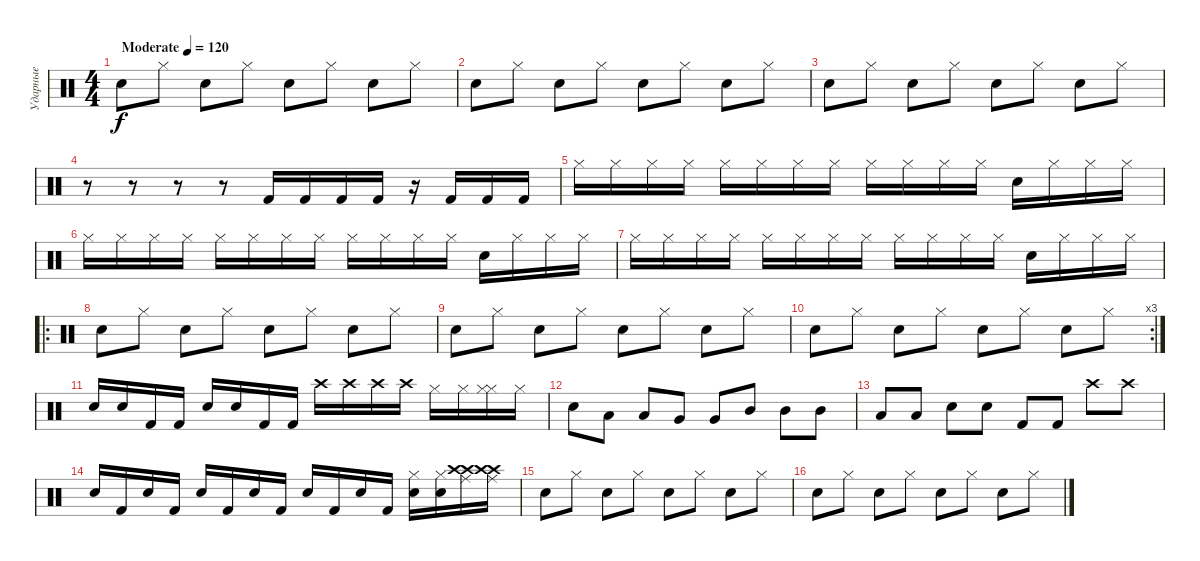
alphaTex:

\track ("Ударные" "Ударные") {instrument percussion}
\staff {score}
\articulation defaults
\ts (4 4)
\tempo (120 "Moderate")
\clef neutral
\ks c "Snare (hit) 2".8{dy f} "Hi-Hat (closed)".8 "Snare (hit) 2".8 "Hi-Hat (closed)".8 "Snare (hit) 2".8 "Hi-Hat (closed)".8 "Snare (hit) 2".8 "Hi-Hat (closed)".8
|
"Snare (hit) 2".8 "Hi-Hat (closed)".8 "Snare (hit) 2".8 "Hi-Hat (closed)".8 "Snare (hit) 2".8 "Hi-Hat (closed)".8 "Snare (hit) 2".8 "Hi-Hat (closed)".8 |
"Snare (hit) 2".8 "Hi-Hat (closed)".8 "Snare (hit) 2".8 "Hi-Hat (closed)".8 "Snare (hit) 2".8 "Hi-Hat (closed)".8 "Snare (hit) 2".8 "Hi-Hat (closed)".8 |
r.8 r.8 r.8 r.8 "Kick (hit) 2".16 "Kick (hit) 2".16 "Kick (hit) 2".16 "Kick (hit) 2".16 r.16 "Kick (hit) 2".16 "Kick (hit) 2".16 "Kick (hit) 2".16 |
"Hi-Hat (closed)".16 "Hi-Hat (closed)".16 "Hi-Hat (closed)".16 "Hi-Hat (closed)".16 "Hi-Hat (closed)".16 "Hi-Hat (closed)".16 "Hi-Hat (closed)".16 "Hi-Hat (closed)".16 "Hi-Hat (closed)".16 "Hi-Hat (closed)".16 "Hi-Hat (closed)".16 "Hi-Hat (closed)".16 "Snare (hit) 2".16 "Hi-Hat (closed)".16 "Hi-Hat (closed)".16 "Hi-Hat (closed)".16 |
"Hi-Hat (closed)".16 "Hi-Hat (closed)".16 "Hi-Hat (closed)".16 "Hi-Hat (closed)".16 "Hi-Hat (closed)".16 "Hi-Hat (closed)".16 "Hi-Hat (closed)".16 "Hi-Hat (closed)".16 "Hi-Hat (closed)".16 "Hi-Hat (closed)".16 "Hi-Hat (closed)".16 "Hi-Hat (closed)".16 "Snare (hit) 2".16 "Hi-Hat (closed)".16 "Hi-Hat (closed)".16 "Hi-Hat (closed)".16 |
"Hi-Hat (closed)".16 "Hi-Hat (closed)".16 "Hi-Hat (closed)".16 "Hi-Hat (closed)".16 "Hi-Hat (closed)".16 "Hi-Hat (closed)".16 "Hi-Hat (closed)".16 "Hi-Hat (closed)".16 "Hi-Hat (closed)".16 "Hi-Hat (closed)".16 "Hi-Hat (closed)".16 "Hi-Hat (closed)".16 "Snare (hit) 2".16 "Hi-Hat (closed)".16 "Hi-Hat (closed)".16 "Hi-Hat (closed)".16 |
\ro "Snare (hit) 2".8 "Hi-Hat (closed)".8 "Snare (hit) 2".8 "Hi-Hat (closed)".8 "Snare (hit) 2".8 "Hi-Hat (closed)".8 "Snare (hit) 2".8 "Hi-Hat (closed)".8
|
"Snare (hit) 2".8 "Hi-Hat (closed)".8 "Snare (hit) 2".8 "Hi-Hat (closed)".8 "Snare (hit) 2".8 "Hi-Hat (closed)".8 "Snare (hit) 2".8 "Hi-Hat (closed)".8 |
\rc 3 "Snare (hit) 2".8 "Hi-Hat (closed)".8 "Snare (hit) 2".8 "Hi-Hat (closed)".8 "Snare (hit) 2".8 "Hi-Hat (closed)".8 "Snare (hit) 2".8 "Hi-Hat (closed)".8
|
"Snare (hit) 2".16 "Snare (hit) 2".16 "Kick (hit) 2".16 "Kick (hit) 2".16 "Snare (hit) 2".16 "Snare (hit) 2".16 "Kick (hit) 2".16 "Kick (hit) 2".16 "Crash high (hit)".16 "Crash high (hit)".16 "Crash high (hit)".16 "Crash high (hit)".16 "Hi-Hat (closed)".16 "Hi-Hat (closed)".16 ("Hi-Hat (closed)" "Hi-Hat (closed)").16 "Hi-Hat (closed)".16 |
"Electric Snare (hit)".8 "Low Floor Tom (hit)".8 "Low Floor Tom (hit)".8 "Very Low Tom (hit)".8 "Very Low Tom (hit)".8 "Mid Tom (hit)".8 "Mid Tom (hit)".8 "Mid Tom (hit)".8 |
"Low Tom (hit)".8 "Low Tom (hit)".8 "Snare (hit) 2".8 "Snare (hit) 2".8 "Kick (hit) 2".8 "Kick (hit) 2".8 "Crash high (hit)".8 "Crash high (hit)".8 |
"Snare (hit) 2".16 "Kick (hit) 2".16 "Snare (hit) 2".16 "Kick (hit) 2".16 "Snare (hit) 2".16 "Kick (hit) 2".16 "Snare (hit) 2".16 "Kick (hit) 2".16 "Snare (hit) 2".16 "Kick (hit) 2".16 "Snare (hit) 2".16 "Kick (hit) 2".16 ("Hi-Hat (closed)" "Snare (hit) 2").16 ("Hi-Hat (closed)" "Snare (hit) 2").16 ("Crash high (hit)" "Crash high (hit)" "Ride (middle)").16 ("Crash high (hit)" "Crash high (hit)" "Ride (middle)").16 |
"Snare (hit) 2".8 "Hi-Hat (closed)".8 "Snare (hit) 2".8 "Hi-Hat (closed)".8 "Snare (hit) 2".8 "Hi-Hat (closed)".8 "Snare (hit) 2".8 "Hi-Hat (closed)".8 |
"Snare (hit) 2".8 "Hi-Hat (closed)".8 "Snare (hit) 2".8 "Hi-Hat (closed)".8 "Snare (hit) 2".8 "Hi-Hat (closed)".8 "Snare (hit) 2".8 "Hi-Hat (closed)".8
